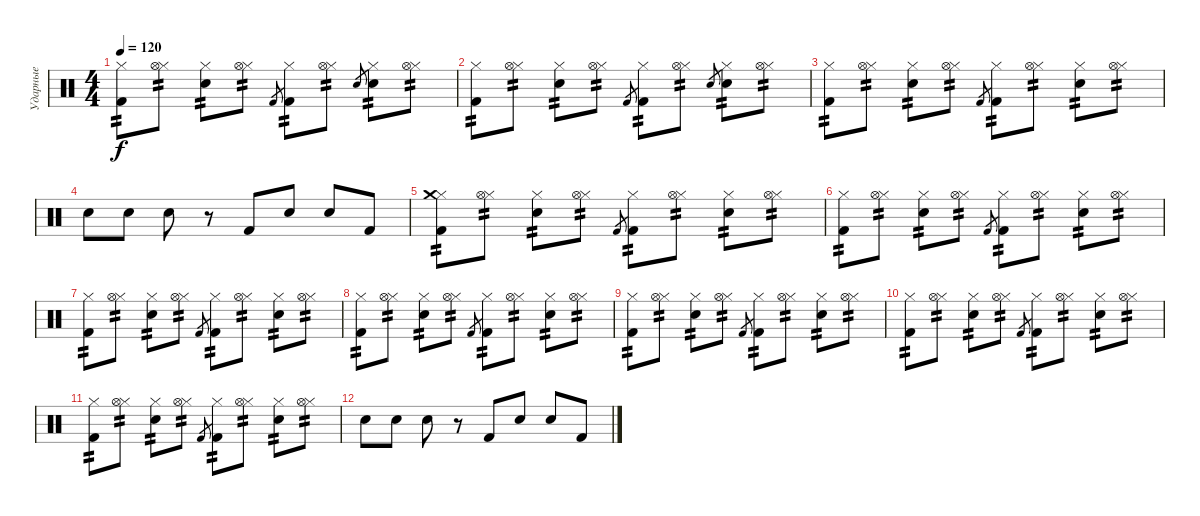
\track ("Ударные" "Ударные") {instrument percussion}
\staff {score}
\articulation defaults
\ts (4 4)
\tempo 120
\clef neutral
\ks c
("Hi-Hat (closed)" "Kick (hit) 2").8{tp 2 dy f} ("Hi-Hat (closed)" "Hi-Hat (open)").8{tp 2} ("Hi-Hat (closed)" "Snare (hit) 2").8{tp 2} ("Hi-Hat (closed)" "Hi-Hat (open)").8{tp 2} "Kick (hit) 2".8{gr} ("Hi-Hat (closed)" "Kick (hit) 2").8{tp 2} ("Hi-Hat (closed)" "Hi-Hat (open)").8{tp 2} "Snare (hit) 2".8{gr} ("Hi-Hat (closed)" "Snare (hit) 2").8{tp 2} ("Hi-Hat (closed)" "Hi-Hat (open)").8{tp 2} |
("Hi-Hat (closed)" "Kick (hit) 2").8{tp 2} ("Hi-Hat (closed)" "Hi-Hat (open)").8{tp 2} ("Hi-Hat (closed)" "Snare (hit) 2").8{tp 2} ("Hi-Hat (closed)" "Hi-Hat (open)").8{tp 2} "Kick (hit) 2".8{gr} ("Hi-Hat (closed)" "Kick (hit) 2").8{tp 2} ("Hi-Hat (closed)" "Hi-Hat (open)").8{tp 2} "Snare (hit) 2".8{gr} ("Hi-Hat (closed)" "Snare (hit) 2").8{tp 2} ("Hi-Hat (closed)" "Hi-Hat (open)").8{tp 2} |
("Hi-Hat (closed)" "Kick (hit) 2").8{tp 2} ("Hi-Hat (closed)" "Hi-Hat (open)").8{tp 2} ("Hi-Hat (closed)" "Snare (hit) 2").8{tp 2} ("Hi-Hat (closed)" "Hi-Hat (open)").8{tp 2} "Kick (hit) 2".8{gr} ("Hi-Hat (closed)" "Kick (hit) 2").8{tp 2} ("Hi-Hat (closed)" "Hi-Hat (open)").8{tp 2} ("Hi-Hat (closed)" "Snare (hit) 2").8{tp 2} ("Hi-Hat (closed)" "Hi-Hat (open)").8{tp 2} |
"Snare (hit) 2".8 "Snare (hit) 2".8 "Snare (hit) 2".8 r.8 "Kick (hit) 2".8 "Snare (hit) 2".8 "Snare (hit) 2".8 "Kick (hit) 2".8 |
("Hi-Hat (closed)" "Kick (hit) 2" "Crash medium (hit)").8{tp 2} ("Hi-Hat (closed)" "Hi-Hat (open)").8{tp 2} ("Hi-Hat (closed)" "Snare (hit) 2").8{tp 2} ("Hi-Hat (closed)" "Hi-Hat (open)").8{tp 2} "Kick (hit) 2".8{gr} ("Hi-Hat (closed)" "Kick (hit) 2").8{tp 2} ("Hi-Hat (closed)" "Hi-Hat (open)").8{tp 2} ("Hi-Hat (closed)" "Snare (hit) 2").8{tp 2} ("Hi-Hat (closed)" "Hi-Hat (open)").8{tp 2} |
("Hi-Hat (closed)" "Kick (hit) 2").8{tp 2} ("Hi-Hat (closed)" "Hi-Hat (open)").8{tp 2} ("Hi-Hat (closed)" "Snare (hit) 2").8{tp 2} ("Hi-Hat (closed)" "Hi-Hat (open)").8{tp 2} "Kick (hit) 2".8{gr} ("Hi-Hat (closed)" "Kick (hit) 2").8{tp 2} ("Hi-Hat (closed)" "Hi-Hat (open)").8{tp 2} ("Hi-Hat (closed)" "Snare (hit) 2").8{tp 2} ("Hi-Hat (closed)" "Hi-Hat (open)").8{tp 2} |
("Hi-Hat (closed)" "Kick (hit) 2").8{tp 2} ("Hi-Hat (closed)" "Hi-Hat (open)").8{tp 2} ("Hi-Hat (closed)" "Snare (hit) 2").8{tp 2} ("Hi-Hat (closed)" "Hi-Hat (open)").8{tp 2} "Kick (hit) 2".8{gr} ("Hi-Hat (closed)" "Kick (hit) 2").8{tp 2} ("Hi-Hat (closed)" "Hi-Hat (open)").8{tp 2} ("Hi-Hat (closed)" "Snare (hit) 2").8{tp 2} ("Hi-Hat (closed)" "Hi-Hat (open)").8{tp 2} |
("Hi-Hat (closed)" "Kick (hit) 2").8{tp 2} ("Hi-Hat (closed)" "Hi-Hat (open)").8{tp 2} ("Hi-Hat (closed)" "Snare (hit) 2").8{tp 2} ("Hi-Hat (closed)" "Hi-Hat (open)").8{tp 2} "Kick (hit) 2".8{gr} ("Hi-Hat (closed)" "Kick (hit) 2").8{tp 2} ("Hi-Hat (closed)" "Hi-Hat (open)").8{tp 2} ("Hi-Hat (closed)" "Snare (hit) 2").8{tp 2} ("Hi-Hat (closed)" "Hi-Hat (open)").8{tp 2} |
("Hi-Hat (closed)" "Kick (hit) 2").8{tp 2} ("Hi-Hat (closed)" "Hi-Hat (open)").8{tp 2} ("Hi-Hat (closed)" "Snare (hit) 2").8{tp 2} ("Hi-Hat (closed)" "Hi-Hat (open)").8{tp 2} "Kick (hit) 2".8{gr} ("Hi-Hat (closed)" "Kick (hit) 2").8{tp 2} ("Hi-Hat (closed)" "Hi-Hat (open)").8{tp 2} ("Hi-Hat (closed)" "Snare (hit) 2").8{tp 2} ("Hi-Hat (closed)" "Hi-Hat (open)").8{tp 2} |
("Hi-Hat (closed)" "Kick (hit) 2").8{tp 2} ("Hi-Hat (closed)" "Hi-Hat (open)").8{tp 2} ("Hi-Hat (closed)" "Snare (hit) 2").8{tp 2} ("Hi-Hat (closed)" "Hi-Hat (open)").8{tp 2} "Kick (hit) 2".8{gr} ("Hi-Hat (closed)" "Kick (hit) 2").8{tp 2} ("Hi-Hat (closed)" "Hi-Hat (open)").8{tp 2} ("Hi-Hat (closed)" "Snare (hit) 2").8{tp 2} ("Hi-Hat (closed)" "Hi-Hat (open)").8{tp 2} |
("Hi-Hat (closed)" "Kick (hit) 2").8{tp 2} ("Hi-Hat (closed)" "Hi-Hat (open)").8{tp 2} ("Hi-Hat (closed)" "Snare (hit) 2").8{tp 2} ("Hi-Hat (closed)" "Hi-Hat (open)").8{tp 2} "Kick (hit) 2".8{gr} ("Hi-Hat (closed)" "Kick (hit) 2").8{tp 2} ("Hi-Hat (closed)" "Hi-Hat (open)").8{tp 2} ("Hi-Hat (closed)" "Snare (hit) 2").8{tp 2} ("Hi-Hat (closed)" "Hi-Hat (open)").8{tp 2} |
"Snare (hit) 2".8 "Snare (hit) 2".8 "Snare (hit) 2".8 r.8 "Kick (hit) 2".8 "Snare (hit) 2".8 "Snare (hit) 2".8 "Kick (hit) 2".8
